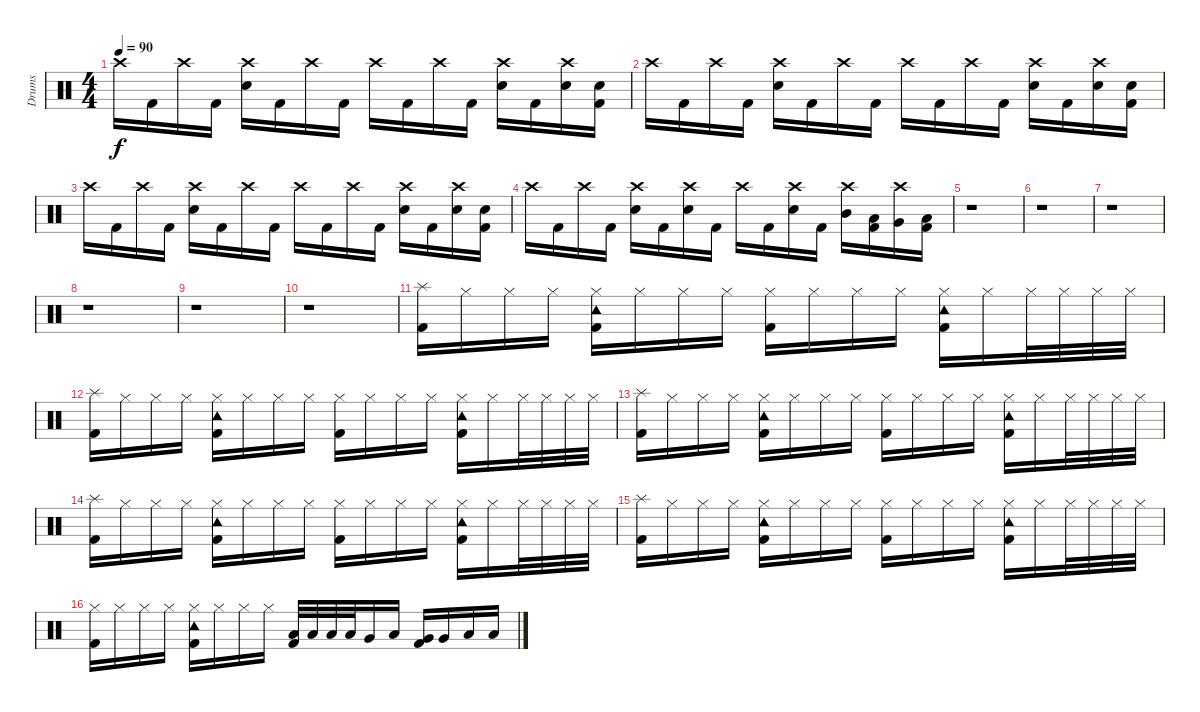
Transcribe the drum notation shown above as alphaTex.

\track ("Drums" "Drums") {instrument percussion}
\staff {score}
\articulation defaults
\ts (4 4)
\tempo 90
\clef neutral
\ks c "Crash high (hit)".16{dy f} "Kick (hit) 2".16 "Crash high (hit)".16 "Kick (hit) 2".16
("Crash high (hit)" "Electric Snare (hit)").16 "Kick (hit) 2".16 "Crash high (hit)".16 "Kick (hit) 2".16 "Crash high (hit)".16 "Kick (hit) 2".16 "Crash high (hit)".16 "Kick (hit) 2".16 ("Crash high (hit)" "Electric Snare (hit)").16 "Kick (hit) 2".16 ("Crash high (hit)" "Electric Snare (hit)").16 ("Electric Snare (hit)" "Kick (hit) 2").16 |
"Crash high (hit)".16 "Kick (hit) 2".16 "Crash high (hit)".16 "Kick (hit) 2".16 ("Crash high (hit)" "Electric Snare (hit)").16 "Kick (hit) 2".16 "Crash high (hit)".16 "Kick (hit) 2".16 "Crash high (hit)".16 "Kick (hit) 2".16 "Crash high (hit)".16 "Kick (hit) 2".16 ("Crash high (hit)" "Electric Snare (hit)").16 "Kick (hit) 2".16 ("Crash high (hit)" "Electric Snare (hit)").16 ("Electric Snare (hit)" "Kick (hit) 2").16 |
"Crash high (hit)".16 "Kick (hit) 2".16 "Crash high (hit)".16 "Kick (hit) 2".16 ("Crash high (hit)" "Electric Snare (hit)").16 "Kick (hit) 2".16 "Crash high (hit)".16 "Kick (hit) 2".16 "Crash high (hit)".16 "Kick (hit) 2".16 "Crash high (hit)".16 "Kick (hit) 2".16 ("Crash high (hit)" "Electric Snare (hit)").16 "Kick (hit) 2".16 ("Crash high (hit)" "Electric Snare (hit)").16 ("Electric Snare (hit)" "Kick (hit) 2").16 |
"Crash high (hit)".16 "Kick (hit) 2".16 "Crash high (hit)".16 "Kick (hit) 2".16 ("Crash high (hit)" "Electric Snare (hit)").16 "Kick (hit) 2".16 ("Crash high (hit)" "Electric Snare (hit)").16 "Kick (hit) 2".16 "Crash high (hit)".16 "Kick (hit) 2".16 ("Crash high (hit)" "Electric Snare (hit)").16 "Kick (hit) 2".16 ("Crash high (hit)" "Mid Tom (hit)").16 ("Low Tom (hit)" "Kick (hit) 2").16 ("Crash high (hit)" "Very Low Tom (hit)").16 ("Low Floor Tom (hit)" "Kick (hit) 2").16 |
r.1 |
r.1 |
r.1 |
r.1 |
r.1 |
r.1 |
("Splash (hit)" "Kick (hit) 2").16 "Hi-Hat (closed)".16 "Hi-Hat (closed)".16 "Hi-Hat (closed)".16 ("Hi-Hat (closed)" "Tambourine (hit)" "Kick (hit) 2").16 "Hi-Hat (closed)".16 "Hi-Hat (closed)".16 "Hi-Hat (closed)".16 ("Hi-Hat (closed)" "Kick (hit) 2").16 "Hi-Hat (closed)".16 "Hi-Hat (closed)".16 "Hi-Hat (closed)".16 ("Hi-Hat (closed)" "Tambourine (hit)" "Kick (hit) 2").16 "Hi-Hat (closed)".16 "Hi-Hat (closed)".32 "Hi-Hat (closed)".32 "Hi-Hat (closed)".32 "Hi-Hat (closed)".32 |
("Splash (hit)" "Kick (hit) 2").16 "Hi-Hat (closed)".16 "Hi-Hat (closed)".16 "Hi-Hat (closed)".16 ("Hi-Hat (closed)" "Tambourine (hit)" "Kick (hit) 2").16 "Hi-Hat (closed)".16 "Hi-Hat (closed)".16 "Hi-Hat (closed)".16 ("Hi-Hat (closed)" "Kick (hit) 2").16 "Hi-Hat (closed)".16 "Hi-Hat (closed)".16 "Hi-Hat (closed)".16 ("Hi-Hat (closed)" "Tambourine (hit)" "Kick (hit) 2").16 "Hi-Hat (closed)".16 "Hi-Hat (closed)".32 "Hi-Hat (closed)".32 "Hi-Hat (closed)".32 "Hi-Hat (closed)".32 |
("Splash (hit)" "Kick (hit) 2").16 "Hi-Hat (closed)".16 "Hi-Hat (closed)".16 "Hi-Hat (closed)".16 ("Hi-Hat (closed)" "Tambourine (hit)" "Kick (hit) 2").16 "Hi-Hat (closed)".16 "Hi-Hat (closed)".16 "Hi-Hat (closed)".16 ("Hi-Hat (closed)" "Kick (hit) 2").16 "Hi-Hat (closed)".16 "Hi-Hat (closed)".16 "Hi-Hat (closed)".16 ("Hi-Hat (closed)" "Tambourine (hit)" "Kick (hit) 2").16 "Hi-Hat (closed)".16 "Hi-Hat (closed)".32 "Hi-Hat (closed)".32 "Hi-Hat (closed)".32 "Hi-Hat (closed)".32 |
("Splash (hit)" "Kick (hit) 2").16 "Hi-Hat (closed)".16 "Hi-Hat (closed)".16 "Hi-Hat (closed)".16 ("Hi-Hat (closed)" "Tambourine (hit)" "Kick (hit) 2").16 "Hi-Hat (closed)".16 "Hi-Hat (closed)".16 "Hi-Hat (closed)".16 ("Hi-Hat (closed)" "Kick (hit) 2").16 "Hi-Hat (closed)".16 "Hi-Hat (closed)".16 "Hi-Hat (closed)".16 ("Hi-Hat (closed)" "Tambourine (hit)" "Kick (hit) 2").16 "Hi-Hat (closed)".16 "Hi-Hat (closed)".32 "Hi-Hat (closed)".32 "Hi-Hat (closed)".32 "Hi-Hat (closed)".32 |
("Splash (hit)" "Kick (hit) 2").16 "Hi-Hat (closed)".16 "Hi-Hat (closed)".16 "Hi-Hat (closed)".16 ("Hi-Hat (closed)" "Tambourine (hit)" "Kick (hit) 2").16 "Hi-Hat (closed)".16 "Hi-Hat (closed)".16 "Hi-Hat (closed)".16 ("Hi-Hat (closed)" "Kick (hit) 2").16 "Hi-Hat (closed)".16 "Hi-Hat (closed)".16 "Hi-Hat (closed)".16 ("Hi-Hat (closed)" "Tambourine (hit)" "Kick (hit) 2").16 "Hi-Hat (closed)".16 "Hi-Hat (closed)".32 "Hi-Hat (closed)".32 "Hi-Hat (closed)".32 "Hi-Hat (closed)".32 |
("Hi-Hat (closed)" "Kick (hit) 2").16 "Hi-Hat (closed)".16 "Hi-Hat (closed)".16 "Hi-Hat (closed)".16 ("Hi-Hat (closed)" "Tambourine (hit)" "Kick (hit) 2").16 "Hi-Hat (closed)".16 "Hi-Hat (closed)".16 "Hi-Hat (closed)".16 ("Low Tom (hit)" "Kick (hit) 2").32 "Low Tom (hit)".32 "Low Tom (hit)".32 "Low Tom (hit)".32 "Very Low Tom (hit)".16 "Low Floor Tom (hit)".16 ("Very Low Tom (hit)" "Kick (hit) 2").16 "Very Low Tom (hit)".16 "Low Floor Tom (hit)".16 "Low Floor Tom (hit)".16
